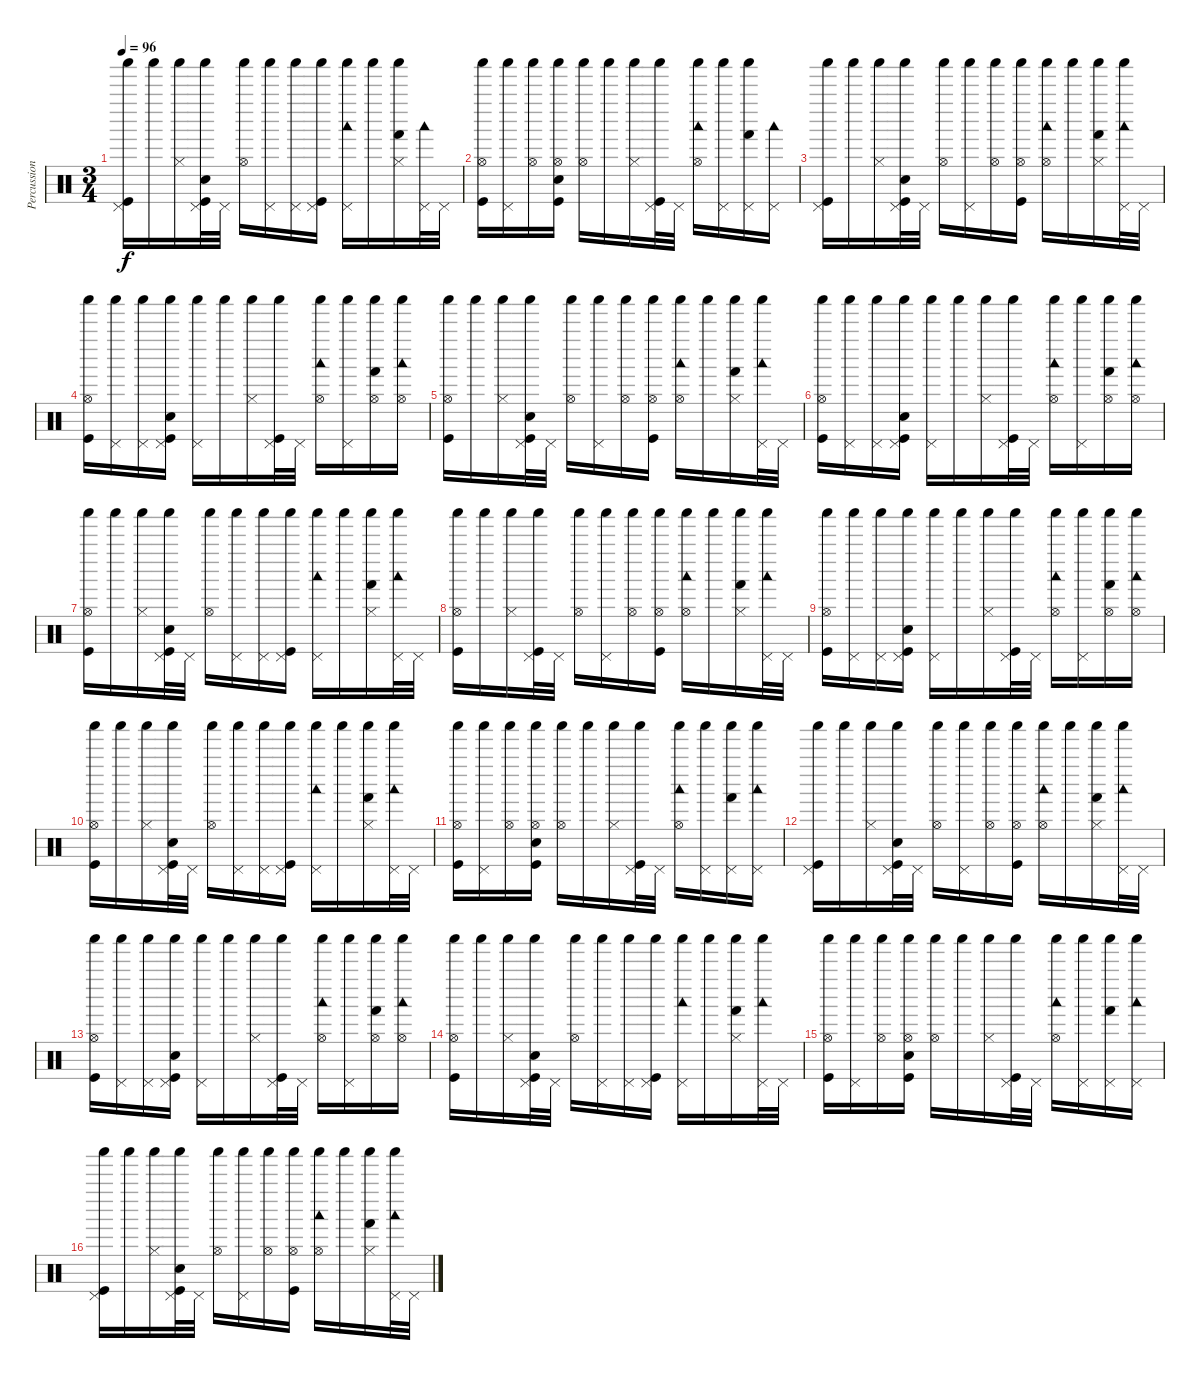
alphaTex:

\track ("Percussions" "Percussion") {instrument percussion}
\staff {score}
\articulation defaults
\ts (3 4)
\tempo 96
\clef neutral
\ks c
("Pedal Hi-Hat (hit)" "Shaker (hit)" "Kick (hit)").16{dy f} "Shaker (hit)".16 ("Hi-Hat (closed)" "Shaker (hit)").16 ("Pedal Hi-Hat (hit)" "Shaker (hit)" "Metronome (bell)" "Kick (hit)").32 "Pedal Hi-Hat (hit)".32 ("Hi-Hat (open)" "Shaker (hit)").16 ("Pedal Hi-Hat (hit)" "Shaker (hit)").16 ("Pedal Hi-Hat (hit)" "Shaker (hit)").16 ("Pedal Hi-Hat (hit)" "Shaker (hit)" "Kick (hit)").16 ("Pedal Hi-Hat (hit)" "Shaker (hit)" "Woodblock low (hit)").16 "Shaker (hit)".16 ("Hi-Hat (closed)" "Shaker (hit)" "Hand (hit)").16 ("Pedal Hi-Hat (hit)" "Woodblock low (hit)").32 "Pedal Hi-Hat (hit)".32 |
("Hi-Hat (open)" "Shaker (hit)" "Kick (hit)").16 ("Pedal Hi-Hat (hit)" "Shaker (hit)").16 ("Hi-Hat (open)" "Shaker (hit)").16 ("Hi-Hat (open)" "Shaker (hit)" "Metronome (bell)" "Kick (hit)").16 ("Hi-Hat (open)" "Shaker (hit)").16 "Shaker (hit)".16 ("Hi-Hat (closed)" "Shaker (hit)").16 ("Pedal Hi-Hat (hit)" "Shaker (hit)" "Kick (hit)").32 "Pedal Hi-Hat (hit)".32 ("Hi-Hat (open)" "Shaker (hit)" "Woodblock low (hit)").16 ("Pedal Hi-Hat (hit)" "Shaker (hit)").16 ("Pedal Hi-Hat (hit)" "Shaker (hit)" "Hand (hit)").16 ("Pedal Hi-Hat (hit)" "Woodblock low (hit)").16 |
("Pedal Hi-Hat (hit)" "Shaker (hit)" "Kick (hit)").16 "Shaker (hit)".16 ("Hi-Hat (closed)" "Shaker (hit)").16 ("Pedal Hi-Hat (hit)" "Shaker (hit)" "Metronome (bell)" "Kick (hit)").32 "Pedal Hi-Hat (hit)".32 ("Hi-Hat (open)" "Shaker (hit)").16 ("Pedal Hi-Hat (hit)" "Shaker (hit)").16 ("Hi-Hat (open)" "Shaker (hit)").16 ("Hi-Hat (open)" "Shaker (hit)" "Kick (hit)").16 ("Hi-Hat (open)" "Shaker (hit)" "Woodblock low (hit)").16 "Shaker (hit)".16 ("Hi-Hat (closed)" "Shaker (hit)" "Hand (hit)").16 ("Pedal Hi-Hat (hit)" "Shaker (hit)" "Woodblock low (hit)").32 "Pedal Hi-Hat (hit)".32 |
("Hi-Hat (open)" "Shaker (hit)" "Kick (hit)").16 ("Pedal Hi-Hat (hit)" "Shaker (hit)").16 ("Pedal Hi-Hat (hit)" "Shaker (hit)").16 ("Pedal Hi-Hat (hit)" "Shaker (hit)" "Metronome (bell)" "Kick (hit)").16 ("Pedal Hi-Hat (hit)" "Shaker (hit)").16 "Shaker (hit)".16 ("Hi-Hat (closed)" "Shaker (hit)").16 ("Pedal Hi-Hat (hit)" "Shaker (hit)" "Kick (hit)").32 "Pedal Hi-Hat (hit)".32 ("Hi-Hat (open)" "Shaker (hit)" "Woodblock low (hit)").16 ("Pedal Hi-Hat (hit)" "Shaker (hit)").16 ("Hi-Hat (open)" "Shaker (hit)" "Hand (hit)").16 ("Hi-Hat (open)" "Shaker (hit)" "Woodblock low (hit)").16 |
("Hi-Hat (open)" "Shaker (hit)" "Kick (hit)").16 "Shaker (hit)".16 ("Hi-Hat (closed)" "Shaker (hit)").16 ("Pedal Hi-Hat (hit)" "Shaker (hit)" "Metronome (bell)" "Kick (hit)").32 "Pedal Hi-Hat (hit)".32 ("Hi-Hat (open)" "Shaker (hit)").16 ("Pedal Hi-Hat (hit)" "Shaker (hit)").16 ("Hi-Hat (open)" "Shaker (hit)").16 ("Hi-Hat (open)" "Shaker (hit)" "Kick (hit)").16 ("Hi-Hat (open)" "Shaker (hit)" "Woodblock low (hit)").16 "Shaker (hit)".16 ("Hi-Hat (closed)" "Shaker (hit)" "Hand (hit)").16 ("Pedal Hi-Hat (hit)" "Shaker (hit)" "Woodblock low (hit)").32 "Pedal Hi-Hat (hit)".32 |
("Hi-Hat (open)" "Shaker (hit)" "Kick (hit)").16 ("Pedal Hi-Hat (hit)" "Shaker (hit)").16 ("Pedal Hi-Hat (hit)" "Shaker (hit)").16 ("Pedal Hi-Hat (hit)" "Shaker (hit)" "Metronome (bell)" "Kick (hit)").16 ("Pedal Hi-Hat (hit)" "Shaker (hit)").16 "Shaker (hit)".16 ("Hi-Hat (closed)" "Shaker (hit)").16 ("Pedal Hi-Hat (hit)" "Shaker (hit)" "Kick (hit)").32 "Pedal Hi-Hat (hit)".32 ("Hi-Hat (open)" "Shaker (hit)" "Woodblock low (hit)").16 ("Pedal Hi-Hat (hit)" "Shaker (hit)").16 ("Hi-Hat (open)" "Shaker (hit)" "Hand (hit)").16 ("Hi-Hat (open)" "Shaker (hit)" "Woodblock low (hit)").16 |
("Hi-Hat (open)" "Shaker (hit)" "Kick (hit)").16 "Shaker (hit)".16 ("Hi-Hat (closed)" "Shaker (hit)").16 ("Pedal Hi-Hat (hit)" "Shaker (hit)" "Metronome (bell)" "Kick (hit)").32 "Pedal Hi-Hat (hit)".32 ("Hi-Hat (open)" "Shaker (hit)").16 ("Pedal Hi-Hat (hit)" "Shaker (hit)").16 ("Pedal Hi-Hat (hit)" "Shaker (hit)").16 ("Pedal Hi-Hat (hit)" "Shaker (hit)" "Kick (hit)").16 ("Pedal Hi-Hat (hit)" "Shaker (hit)" "Woodblock low (hit)").16 "Shaker (hit)".16 ("Hi-Hat (closed)" "Shaker (hit)" "Hand (hit)").16 ("Pedal Hi-Hat (hit)" "Shaker (hit)" "Woodblock low (hit)").32 "Pedal Hi-Hat (hit)".32 |
("Hi-Hat (open)" "Shaker (hit)" "Kick (hit)").16 "Shaker (hit)".16 ("Hi-Hat (closed)" "Shaker (hit)").16 ("Pedal Hi-Hat (hit)" "Shaker (hit)" "Kick (hit)").32 "Pedal Hi-Hat (hit)".32 ("Hi-Hat (open)" "Shaker (hit)").16 ("Pedal Hi-Hat (hit)" "Shaker (hit)").16 ("Hi-Hat (open)" "Shaker (hit)").16 ("Hi-Hat (open)" "Shaker (hit)" "Kick (hit)").16 ("Hi-Hat (open)" "Shaker (hit)" "Woodblock low (hit)").16 "Shaker (hit)".16 ("Hi-Hat (closed)" "Shaker (hit)" "Hand (hit)").16 ("Pedal Hi-Hat (hit)" "Shaker (hit)" "Woodblock low (hit)").32 "Pedal Hi-Hat (hit)".32 |
("Hi-Hat (open)" "Shaker (hit)" "Kick (hit)").16 ("Pedal Hi-Hat (hit)" "Shaker (hit)").16 ("Pedal Hi-Hat (hit)" "Shaker (hit)").16 ("Pedal Hi-Hat (hit)" "Shaker (hit)" "Metronome (bell)" "Kick (hit)").16 ("Pedal Hi-Hat (hit)" "Shaker (hit)").16 "Shaker (hit)".16 ("Hi-Hat (closed)" "Shaker (hit)").16 ("Pedal Hi-Hat (hit)" "Shaker (hit)" "Kick (hit)").32 "Pedal Hi-Hat (hit)".32 ("Hi-Hat (open)" "Shaker (hit)" "Woodblock low (hit)").16 ("Pedal Hi-Hat (hit)" "Shaker (hit)").16 ("Hi-Hat (open)" "Shaker (hit)" "Hand (hit)").16 ("Hi-Hat (open)" "Shaker (hit)" "Woodblock low (hit)").16 |
("Hi-Hat (open)" "Shaker (hit)" "Kick (hit)").16 "Shaker (hit)".16 ("Hi-Hat (closed)" "Shaker (hit)").16 ("Pedal Hi-Hat (hit)" "Shaker (hit)" "Metronome (bell)" "Kick (hit)").32 "Pedal Hi-Hat (hit)".32 ("Hi-Hat (open)" "Shaker (hit)").16 ("Pedal Hi-Hat (hit)" "Shaker (hit)").16 ("Pedal Hi-Hat (hit)" "Shaker (hit)").16 ("Pedal Hi-Hat (hit)" "Shaker (hit)" "Kick (hit)").16 ("Pedal Hi-Hat (hit)" "Shaker (hit)" "Woodblock low (hit)").16 "Shaker (hit)".16 ("Hi-Hat (closed)" "Shaker (hit)" "Hand (hit)").16 ("Pedal Hi-Hat (hit)" "Shaker (hit)" "Woodblock low (hit)").32 "Pedal Hi-Hat (hit)".32 |
("Hi-Hat (open)" "Shaker (hit)" "Kick (hit)").16 ("Pedal Hi-Hat (hit)" "Shaker (hit)").16 ("Hi-Hat (open)" "Shaker (hit)").16 ("Hi-Hat (open)" "Shaker (hit)" "Metronome (bell)" "Kick (hit)").16 ("Hi-Hat (open)" "Shaker (hit)").16 "Shaker (hit)".16 ("Hi-Hat (closed)" "Shaker (hit)").16 ("Pedal Hi-Hat (hit)" "Shaker (hit)" "Kick (hit)").32 "Pedal Hi-Hat (hit)".32 ("Hi-Hat (open)" "Shaker (hit)" "Woodblock low (hit)").16 ("Pedal Hi-Hat (hit)" "Shaker (hit)").16 ("Pedal Hi-Hat (hit)" "Shaker (hit)" "Hand (hit)").16 ("Pedal Hi-Hat (hit)" "Shaker (hit)" "Woodblock low (hit)").16 |
("Pedal Hi-Hat (hit)" "Shaker (hit)" "Kick (hit)").16 "Shaker (hit)".16 ("Hi-Hat (closed)" "Shaker (hit)").16 ("Pedal Hi-Hat (hit)" "Shaker (hit)" "Metronome (bell)" "Kick (hit)").32 "Pedal Hi-Hat (hit)".32 ("Hi-Hat (open)" "Shaker (hit)").16 ("Pedal Hi-Hat (hit)" "Shaker (hit)").16 ("Hi-Hat (open)" "Shaker (hit)").16 ("Hi-Hat (open)" "Shaker (hit)" "Kick (hit)").16 ("Hi-Hat (open)" "Shaker (hit)" "Woodblock low (hit)").16 "Shaker (hit)".16 ("Hi-Hat (closed)" "Shaker (hit)" "Hand (hit)").16 ("Pedal Hi-Hat (hit)" "Shaker (hit)" "Woodblock low (hit)").32 "Pedal Hi-Hat (hit)".32 |
("Hi-Hat (open)" "Shaker (hit)" "Kick (hit)").16 ("Pedal Hi-Hat (hit)" "Shaker (hit)").16 ("Pedal Hi-Hat (hit)" "Shaker (hit)").16 ("Pedal Hi-Hat (hit)" "Shaker (hit)" "Metronome (bell)" "Kick (hit)").16 ("Pedal Hi-Hat (hit)" "Shaker (hit)").16 "Shaker (hit)".16 ("Hi-Hat (closed)" "Shaker (hit)").16 ("Pedal Hi-Hat (hit)" "Shaker (hit)" "Kick (hit)").32 "Pedal Hi-Hat (hit)".32 ("Hi-Hat (open)" "Shaker (hit)" "Woodblock low (hit)").16 ("Pedal Hi-Hat (hit)" "Shaker (hit)").16 ("Hi-Hat (open)" "Shaker (hit)" "Hand (hit)").16 ("Hi-Hat (open)" "Shaker (hit)" "Woodblock low (hit)").16 |
("Hi-Hat (open)" "Shaker (hit)" "Kick (hit)").16 "Shaker (hit)".16 ("Hi-Hat (closed)" "Shaker (hit)").16 ("Pedal Hi-Hat (hit)" "Shaker (hit)" "Metronome (bell)" "Kick (hit)").32 "Pedal Hi-Hat (hit)".32 ("Hi-Hat (open)" "Shaker (hit)").16 ("Pedal Hi-Hat (hit)" "Shaker (hit)").16 ("Pedal Hi-Hat (hit)" "Shaker (hit)").16 ("Pedal Hi-Hat (hit)" "Shaker (hit)" "Kick (hit)").16 ("Pedal Hi-Hat (hit)" "Shaker (hit)" "Woodblock low (hit)").16 "Shaker (hit)".16 ("Hi-Hat (closed)" "Shaker (hit)" "Hand (hit)").16 ("Pedal Hi-Hat (hit)" "Shaker (hit)" "Woodblock low (hit)").32 "Pedal Hi-Hat (hit)".32 |
("Hi-Hat (open)" "Shaker (hit)" "Kick (hit)").16 ("Pedal Hi-Hat (hit)" "Shaker (hit)").16 ("Hi-Hat (open)" "Shaker (hit)").16 ("Hi-Hat (open)" "Shaker (hit)" "Metronome (bell)" "Kick (hit)").16 ("Hi-Hat (open)" "Shaker (hit)").16 "Shaker (hit)".16 ("Hi-Hat (closed)" "Shaker (hit)").16 ("Pedal Hi-Hat (hit)" "Shaker (hit)" "Kick (hit)").32 "Pedal Hi-Hat (hit)".32 ("Hi-Hat (open)" "Shaker (hit)" "Woodblock low (hit)").16 ("Pedal Hi-Hat (hit)" "Shaker (hit)").16 ("Pedal Hi-Hat (hit)" "Shaker (hit)" "Hand (hit)").16 ("Pedal Hi-Hat (hit)" "Shaker (hit)" "Woodblock low (hit)").16 |
("Pedal Hi-Hat (hit)" "Shaker (hit)" "Kick (hit)").16 "Shaker (hit)".16 ("Hi-Hat (closed)" "Shaker (hit)").16 ("Pedal Hi-Hat (hit)" "Shaker (hit)" "Metronome (bell)" "Kick (hit)").32 "Pedal Hi-Hat (hit)".32 ("Hi-Hat (open)" "Shaker (hit)").16 ("Pedal Hi-Hat (hit)" "Shaker (hit)").16 ("Hi-Hat (open)" "Shaker (hit)").16 ("Hi-Hat (open)" "Shaker (hit)" "Kick (hit)").16 ("Hi-Hat (open)" "Shaker (hit)" "Woodblock low (hit)").16 "Shaker (hit)".16 ("Hi-Hat (closed)" "Shaker (hit)" "Hand (hit)").16 ("Pedal Hi-Hat (hit)" "Shaker (hit)" "Woodblock low (hit)").32 "Pedal Hi-Hat (hit)".32
